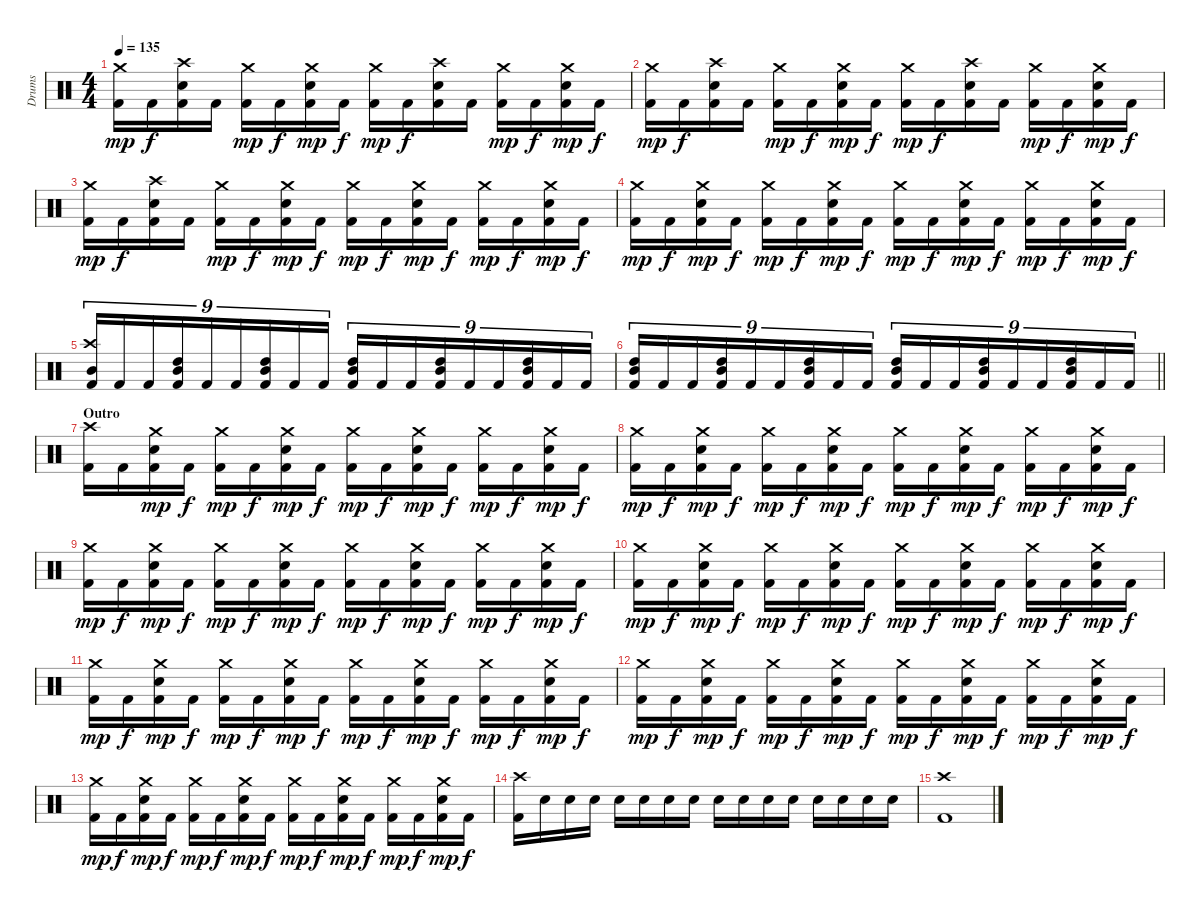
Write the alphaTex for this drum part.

\track ("Drums" "Drums") {instrument percussion}
\staff {score}
\articulation defaults
\ts (4 4)
\tempo 135
\clef neutral
\ks c
("Crash medium (hit)" "Kick (hit) 2").16{dy mp} "Kick (hit) 2".16{dy f} ("Crash high (hit)" "Snare (hit) 2" "Kick (hit) 2").16 "Kick (hit) 2".16 ("Crash medium (hit)" "Kick (hit) 2").16{dy mp} "Kick (hit) 2".16{dy f} ("Crash medium (hit)" "Snare (hit) 2" "Kick (hit) 2").16{dy mp} "Kick (hit) 2".16{dy f} ("Crash medium (hit)" "Kick (hit) 2").16{dy mp} "Kick (hit) 2".16{dy f} ("Crash high (hit)" "Snare (hit) 2" "Kick (hit) 2").16 "Kick (hit) 2".16 ("Crash medium (hit)" "Kick (hit) 2").16{dy mp} "Kick (hit) 2".16{dy f} ("Crash medium (hit)" "Snare (hit) 2" "Kick (hit) 2").16{dy mp} "Kick (hit) 2".16{dy f} |
("Crash medium (hit)" "Kick (hit) 2").16{dy mp} "Kick (hit) 2".16{dy f} ("Crash high (hit)" "Snare (hit) 2" "Kick (hit) 2").16 "Kick (hit) 2".16 ("Crash medium (hit)" "Kick (hit) 2").16{dy mp} "Kick (hit) 2".16{dy f} ("Crash medium (hit)" "Snare (hit) 2" "Kick (hit) 2").16{dy mp} "Kick (hit) 2".16{dy f} ("Crash medium (hit)" "Kick (hit) 2").16{dy mp} "Kick (hit) 2".16{dy f} ("Crash high (hit)" "Snare (hit) 2" "Kick (hit) 2").16 "Kick (hit) 2".16 ("Crash medium (hit)" "Kick (hit) 2").16{dy mp} "Kick (hit) 2".16{dy f} ("Crash medium (hit)" "Snare (hit) 2" "Kick (hit) 2").16{dy mp} "Kick (hit) 2".16{dy f} |
("Crash medium (hit)" "Kick (hit) 2").16{dy mp} "Kick (hit) 2".16{dy f} ("Crash high (hit)" "Snare (hit) 2" "Kick (hit) 2").16 "Kick (hit) 2".16 ("Crash medium (hit)" "Kick (hit) 2").16{dy mp} "Kick (hit) 2".16{dy f} ("Crash medium (hit)" "Snare (hit) 2" "Kick (hit) 2").16{dy mp} "Kick (hit) 2".16{dy f} ("Crash medium (hit)" "Kick (hit) 2").16{dy mp} "Kick (hit) 2".16{dy f} ("Crash medium (hit)" "Snare (hit) 2" "Kick (hit) 2").16{dy mp} "Kick (hit) 2".16{dy f} ("Crash medium (hit)" "Kick (hit) 2").16{dy mp} "Kick (hit) 2".16{dy f} ("Crash medium (hit)" "Snare (hit) 2" "Kick (hit) 2").16{dy mp} "Kick (hit) 2".16{dy f} |
("Crash medium (hit)" "Kick (hit) 2").16{dy mp} "Kick (hit) 2".16{dy f} ("Crash medium (hit)" "Snare (hit) 2" "Kick (hit) 2").16{dy mp} "Kick (hit) 2".16{dy f} ("Crash medium (hit)" "Kick (hit) 2").16{dy mp} "Kick (hit) 2".16{dy f} ("Crash medium (hit)" "Snare (hit) 2" "Kick (hit) 2").16{dy mp} "Kick (hit) 2".16{dy f} ("Crash medium (hit)" "Kick (hit) 2").16{dy mp} "Kick (hit) 2".16{dy f} ("Crash medium (hit)" "Snare (hit) 2" "Kick (hit) 2").16{dy mp} "Kick (hit) 2".16{dy f} ("Crash medium (hit)" "Kick (hit) 2").16{dy mp} "Kick (hit) 2".16{dy f} ("Crash medium (hit)" "Snare (hit) 2" "Kick (hit) 2").16{dy mp} "Kick (hit) 2".16{dy f} |
("Crash high (hit)" "Mid Tom (hit)" "Kick (hit) 2").16{tu (9 8)} "Kick (hit) 2".16{tu (9 8)} "Kick (hit) 2".16{tu (9 8)} ("High Tom (hit)" "Mid Tom (hit)" "Kick (hit) 2").16{tu (9 8)} "Kick (hit) 2".16{tu (9 8)} "Kick (hit) 2".16{tu (9 8)} ("High Tom (hit)" "Mid Tom (hit)" "Kick (hit) 2").16{tu (9 8)} "Kick (hit) 2".16{tu (9 8)} "Kick (hit) 2".16{tu (9 8)} ("High Tom (hit)" "Mid Tom (hit)" "Kick (hit) 2").16{tu (9 8)} "Kick (hit) 2".16{tu (9 8)} "Kick (hit) 2".16{tu (9 8)} ("High Tom (hit)" "Mid Tom (hit)" "Kick (hit) 2").16{tu (9 8)} "Kick (hit) 2".16{tu (9 8)} "Kick (hit) 2".16{tu (9 8)} ("High Tom (hit)" "Mid Tom (hit)" "Kick (hit) 2").16{tu (9 8)} "Kick (hit) 2".16{tu (9 8)} "Kick (hit) 2".16{tu (9 8)} |
\barLineRight lightlight
("High Tom (hit)" "Mid Tom (hit)" "Kick (hit) 2").16{tu (9 8)} "Kick (hit) 2".16{tu (9 8)} "Kick (hit) 2".16{tu (9 8)} ("High Tom (hit)" "Mid Tom (hit)" "Kick (hit) 2").16{tu (9 8)} "Kick (hit) 2".16{tu (9 8)} "Kick (hit) 2".16{tu (9 8)} ("High Tom (hit)" "Mid Tom (hit)" "Kick (hit) 2").16{tu (9 8)} "Kick (hit) 2".16{tu (9 8)} "Kick (hit) 2".16{tu (9 8)} ("High Tom (hit)" "Mid Tom (hit)" "Kick (hit) 2").16{tu (9 8)} "Kick (hit) 2".16{tu (9 8)} "Kick (hit) 2".16{tu (9 8)} ("High Tom (hit)" "Mid Tom (hit)" "Kick (hit) 2").16{tu (9 8)} "Kick (hit) 2".16{tu (9 8)} "Kick (hit) 2".16{tu (9 8)} ("High Tom (hit)" "Mid Tom (hit)" "Kick (hit) 2").16{tu (9 8)} "Kick (hit) 2".16{tu (9 8)} "Kick (hit) 2".16{tu (9 8)} |
\section ("" "Outro")
("Crash high (hit)" "Kick (hit) 2").16 "Kick (hit) 2".16 ("Crash medium (hit)" "Snare (hit) 2" "Kick (hit) 2").16{dy mp} "Kick (hit) 2".16{dy f} ("Crash medium (hit)" "Kick (hit) 2").16{dy mp} "Kick (hit) 2".16{dy f} ("Crash medium (hit)" "Snare (hit) 2" "Kick (hit) 2").16{dy mp} "Kick (hit) 2".16{dy f} ("Crash medium (hit)" "Kick (hit) 2").16{dy mp} "Kick (hit) 2".16{dy f} ("Crash medium (hit)" "Snare (hit) 2" "Kick (hit) 2").16{dy mp} "Kick (hit) 2".16{dy f} ("Crash medium (hit)" "Kick (hit) 2").16{dy mp} "Kick (hit) 2".16{dy f} ("Crash medium (hit)" "Snare (hit) 2" "Kick (hit) 2").16{dy mp} "Kick (hit) 2".16{dy f} |
("Crash medium (hit)" "Kick (hit) 2").16{dy mp} "Kick (hit) 2".16{dy f} ("Crash medium (hit)" "Snare (hit) 2" "Kick (hit) 2").16{dy mp} "Kick (hit) 2".16{dy f} ("Crash medium (hit)" "Kick (hit) 2").16{dy mp} "Kick (hit) 2".16{dy f} ("Crash medium (hit)" "Snare (hit) 2" "Kick (hit) 2").16{dy mp} "Kick (hit) 2".16{dy f} ("Crash medium (hit)" "Kick (hit) 2").16{dy mp} "Kick (hit) 2".16{dy f} ("Crash medium (hit)" "Snare (hit) 2" "Kick (hit) 2").16{dy mp} "Kick (hit) 2".16{dy f} ("Crash medium (hit)" "Kick (hit) 2").16{dy mp} "Kick (hit) 2".16{dy f} ("Crash medium (hit)" "Snare (hit) 2" "Kick (hit) 2").16{dy mp} "Kick (hit) 2".16{dy f} |
("Crash medium (hit)" "Kick (hit) 2").16{dy mp} "Kick (hit) 2".16{dy f} ("Crash medium (hit)" "Snare (hit) 2" "Kick (hit) 2").16{dy mp} "Kick (hit) 2".16{dy f} ("Crash medium (hit)" "Kick (hit) 2").16{dy mp} "Kick (hit) 2".16{dy f} ("Crash medium (hit)" "Snare (hit) 2" "Kick (hit) 2").16{dy mp} "Kick (hit) 2".16{dy f} ("Crash medium (hit)" "Kick (hit) 2").16{dy mp} "Kick (hit) 2".16{dy f} ("Crash medium (hit)" "Snare (hit) 2" "Kick (hit) 2").16{dy mp} "Kick (hit) 2".16{dy f} ("Crash medium (hit)" "Kick (hit) 2").16{dy mp} "Kick (hit) 2".16{dy f} ("Crash medium (hit)" "Snare (hit) 2" "Kick (hit) 2").16{dy mp} "Kick (hit) 2".16{dy f} |
("Crash medium (hit)" "Kick (hit) 2").16{dy mp} "Kick (hit) 2".16{dy f} ("Crash medium (hit)" "Snare (hit) 2" "Kick (hit) 2").16{dy mp} "Kick (hit) 2".16{dy f} ("Crash medium (hit)" "Kick (hit) 2").16{dy mp} "Kick (hit) 2".16{dy f} ("Crash medium (hit)" "Snare (hit) 2" "Kick (hit) 2").16{dy mp} "Kick (hit) 2".16{dy f} ("Crash medium (hit)" "Kick (hit) 2").16{dy mp} "Kick (hit) 2".16{dy f} ("Crash medium (hit)" "Snare (hit) 2" "Kick (hit) 2").16{dy mp} "Kick (hit) 2".16{dy f} ("Crash medium (hit)" "Kick (hit) 2").16{dy mp} "Kick (hit) 2".16{dy f} ("Crash medium (hit)" "Snare (hit) 2" "Kick (hit) 2").16{dy mp} "Kick (hit) 2".16{dy f} |
("Crash medium (hit)" "Kick (hit) 2").16{dy mp} "Kick (hit) 2".16{dy f} ("Crash medium (hit)" "Snare (hit) 2" "Kick (hit) 2").16{dy mp} "Kick (hit) 2".16{dy f} ("Crash medium (hit)" "Kick (hit) 2").16{dy mp} "Kick (hit) 2".16{dy f} ("Crash medium (hit)" "Snare (hit) 2" "Kick (hit) 2").16{dy mp} "Kick (hit) 2".16{dy f} ("Crash medium (hit)" "Kick (hit) 2").16{dy mp} "Kick (hit) 2".16{dy f} ("Crash medium (hit)" "Snare (hit) 2" "Kick (hit) 2").16{dy mp} "Kick (hit) 2".16{dy f} ("Crash medium (hit)" "Kick (hit) 2").16{dy mp} "Kick (hit) 2".16{dy f} ("Crash medium (hit)" "Snare (hit) 2" "Kick (hit) 2").16{dy mp} "Kick (hit) 2".16{dy f} |
("Crash medium (hit)" "Kick (hit) 2").16{dy mp} "Kick (hit) 2".16{dy f} ("Crash medium (hit)" "Snare (hit) 2" "Kick (hit) 2").16{dy mp} "Kick (hit) 2".16{dy f} ("Crash medium (hit)" "Kick (hit) 2").16{dy mp} "Kick (hit) 2".16{dy f} ("Crash medium (hit)" "Snare (hit) 2" "Kick (hit) 2").16{dy mp} "Kick (hit) 2".16{dy f} ("Crash medium (hit)" "Kick (hit) 2").16{dy mp} "Kick (hit) 2".16{dy f} ("Crash medium (hit)" "Snare (hit) 2" "Kick (hit) 2").16{dy mp} "Kick (hit) 2".16{dy f} ("Crash medium (hit)" "Kick (hit) 2").16{dy mp} "Kick (hit) 2".16{dy f} ("Crash medium (hit)" "Snare (hit) 2" "Kick (hit) 2").16{dy mp} "Kick (hit) 2".16{dy f} |
("Crash medium (hit)" "Kick (hit) 2").16{dy mp} "Kick (hit) 2".16{dy f} ("Crash medium (hit)" "Snare (hit) 2" "Kick (hit) 2").16{dy mp} "Kick (hit) 2".16{dy f} ("Crash medium (hit)" "Kick (hit) 2").16{dy mp} "Kick (hit) 2".16{dy f} ("Crash medium (hit)" "Snare (hit) 2" "Kick (hit) 2").16{dy mp} "Kick (hit) 2".16{dy f} ("Crash medium (hit)" "Kick (hit) 2").16{dy mp} "Kick (hit) 2".16{dy f} ("Crash medium (hit)" "Snare (hit) 2" "Kick (hit) 2").16{dy mp} "Kick (hit) 2".16{dy f} ("Crash medium (hit)" "Kick (hit) 2").16{dy mp} "Kick (hit) 2".16{dy f} ("Crash medium (hit)" "Snare (hit) 2" "Kick (hit) 2").16{dy mp} "Kick (hit) 2".16{dy f} |
("Crash high (hit)" "Kick (hit) 2").16 "Snare (hit) 2".16 "Snare (hit) 2".16 "Snare (hit) 2".16 "Snare (hit) 2".16 "Snare (hit) 2".16 "Snare (hit) 2".16 "Snare (hit) 2".16 "Snare (hit) 2".16 "Snare (hit) 2".16 "Snare (hit) 2".16 "Snare (hit) 2".16 "Snare (hit) 2".16 "Snare (hit) 2".16 "Snare (hit) 2".16 "Snare (hit) 2".16 |
("Crash high (hit)" "Kick (hit) 2").1
